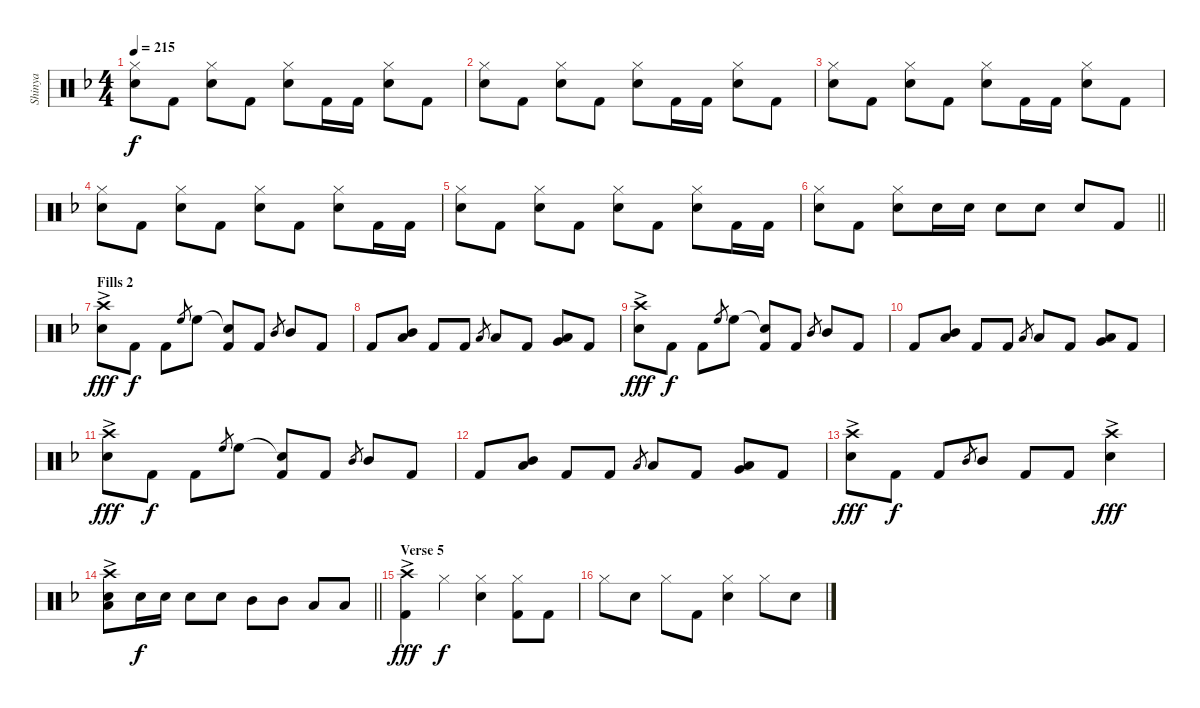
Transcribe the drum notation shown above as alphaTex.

\track ("Shinya" "Shinya") {instrument percussion}
\staff {score}
\articulation defaults
\ts (4 4)
\tempo 215
\clef neutral
\ks f
("Hi-Hat (closed)" "Snare (hit) 2").8{dy f} "Kick (hit) 2".8 ("Hi-Hat (closed)" "Snare (hit) 2").8 "Kick (hit) 2".8 ("Hi-Hat (closed)" "Snare (hit) 2").8 "Kick (hit) 2".16 "Kick (hit) 2".16 ("Hi-Hat (closed)" "Snare (hit) 2").8 "Kick (hit) 2".8 |
("Hi-Hat (closed)" "Snare (hit) 2").8 "Kick (hit) 2".8 ("Hi-Hat (closed)" "Snare (hit) 2").8 "Kick (hit) 2".8 ("Hi-Hat (closed)" "Snare (hit) 2").8 "Kick (hit) 2".16 "Kick (hit) 2".16 ("Hi-Hat (closed)" "Snare (hit) 2").8 "Kick (hit) 2".8 |
("Hi-Hat (closed)" "Snare (hit) 2").8 "Kick (hit) 2".8 ("Hi-Hat (closed)" "Snare (hit) 2").8 "Kick (hit) 2".8 ("Hi-Hat (closed)" "Snare (hit) 2").8 "Kick (hit) 2".16 "Kick (hit) 2".16 ("Hi-Hat (closed)" "Snare (hit) 2").8 "Kick (hit) 2".8 |
("Hi-Hat (closed)" "Snare (hit) 2").8 "Kick (hit) 2".8 ("Hi-Hat (closed)" "Snare (hit) 2").8 "Kick (hit) 2".8 ("Hi-Hat (closed)" "Snare (hit) 2").8 "Kick (hit) 2".8 ("Hi-Hat (closed)" "Snare (hit) 2").8 "Kick (hit) 2".16 "Kick (hit) 2".16 |
("Hi-Hat (closed)" "Snare (hit) 2").8 "Kick (hit) 2".8 ("Hi-Hat (closed)" "Snare (hit) 2").8 "Kick (hit) 2".8 ("Hi-Hat (closed)" "Snare (hit) 2").8 "Kick (hit) 2".8 ("Hi-Hat (closed)" "Snare (hit) 2").8 "Kick (hit) 2".16 "Kick (hit) 2".16 |
\barLineRight lightlight
("Hi-Hat (closed)" "Snare (hit) 2").8 "Kick (hit) 2".8 ("Hi-Hat (closed)" "Snare (hit) 2").8 "Snare (hit) 2".16 "Snare (hit) 2".16 "Snare (hit) 2".8 "Snare (hit) 2".8 "Snare (hit) 2".8 "Kick (hit) 2".8 |
\section ("" "Fills 2")
("Crash high (hit)"{ac} "Snare (hit) 2").8{dy fff} "Kick (hit) 2".8{dy f} "Kick (hit) 2".8 "High Floor Tom (hit)".8{gr} "High Floor Tom (hit)".8 ("Snare (hit)"{t} "Kick (hit) 2").8 "Kick (hit) 2".8 "Mid Tom (hit)".8{gr} "Mid Tom (hit)".8 "Kick (hit) 2".8 |
"Kick (hit) 2".8 ("Mid Tom (hit)" "Low Tom (hit)").8 "Kick (hit) 2".8 "Kick (hit) 2".8 "Low Tom (hit)".8{gr} "Low Tom (hit)".8 "Kick (hit) 2".8 ("Low Tom (hit)" "Very Low Tom (hit)").8 "Kick (hit) 2".8 |
("Crash high (hit)"{ac} "Snare (hit) 2").8{dy fff} "Kick (hit) 2".8{dy f} "Kick (hit) 2".8 "High Floor Tom (hit)".8{gr} "High Floor Tom (hit)".8 ("Snare (hit)"{t} "Kick (hit) 2").8 "Kick (hit) 2".8 "Mid Tom (hit)".8{gr} "Mid Tom (hit)".8 "Kick (hit) 2".8 |
"Kick (hit) 2".8 ("Mid Tom (hit)" "Low Tom (hit)").8 "Kick (hit) 2".8 "Kick (hit) 2".8 "Low Tom (hit)".8{gr} "Low Tom (hit)".8 "Kick (hit) 2".8 ("Low Tom (hit)" "Very Low Tom (hit)").8 "Kick (hit) 2".8 |
("Crash high (hit)"{ac} "Snare (hit) 2").8{dy fff} "Kick (hit) 2".8{dy f} "Kick (hit) 2".8 "High Floor Tom (hit)".8{gr} "High Floor Tom (hit)".8 ("Snare (hit)"{t} "Kick (hit) 2").8 "Kick (hit) 2".8 "Mid Tom (hit)".8{gr} "Mid Tom (hit)".8 "Kick (hit) 2".8 |
"Kick (hit) 2".8 ("Mid Tom (hit)" "Low Tom (hit)").8 "Kick (hit) 2".8 "Kick (hit) 2".8 "Low Tom (hit)".8{gr} "Low Tom (hit)".8 "Kick (hit) 2".8 ("Low Tom (hit)" "Very Low Tom (hit)").8 "Kick (hit) 2".8 |
("Crash high (hit)"{ac} "Snare (hit) 2").8{dy fff} "Kick (hit) 2".8{dy f} "Kick (hit) 2".8 "Mid Tom (hit)".8{gr} "Mid Tom (hit)".8 "Kick (hit) 2".8 "Kick (hit) 2".8 ("Crash high (hit)"{ac} "Snare (hit) 2").4{dy fff} |
\barLineRight lightlight
("Crash high (hit)"{ac} "Snare (hit) 2" "Low Floor Tom (hit)").8 "Snare (hit) 2".16{dy f} "Snare (hit) 2".16 "Snare (hit) 2".8 "Snare (hit) 2".8 "Mid Tom (hit)".8 "Mid Tom (hit)".8 "Low Tom (hit)".8 "Low Tom (hit)".8 |
\section ("" "Verse 5")
("Crash high (hit)"{ac} "Kick (hit) 2").4{dy fff} "Hi-Hat (closed)".4{dy f} ("Hi-Hat (closed)" "Snare (hit) 2").4 ("Hi-Hat (closed)" "Kick (hit) 2").8 "Kick (hit) 2".8 |
"Hi-Hat (closed)".8 "Snare (hit) 2".8 "Hi-Hat (closed)".8 "Kick (hit) 2".8 ("Hi-Hat (closed)" "Snare (hit) 2").4 "Hi-Hat (closed)".8 "Snare (hit) 2".8
